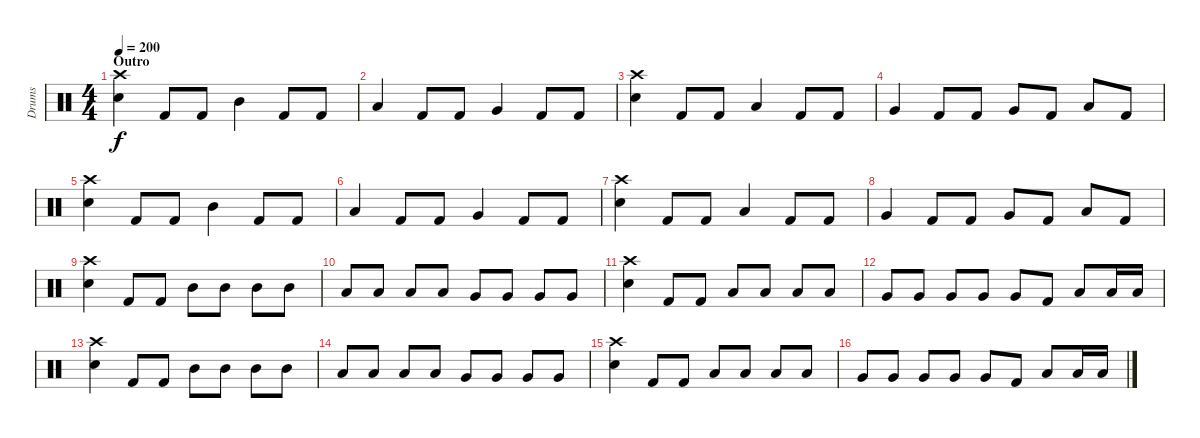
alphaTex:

\track ("Drums" "Drums") {instrument percussion}
\staff {score}
\articulation defaults
\ts (4 4)
\section ("" "Outro")
\tempo 200
\clef neutral
\ks c
("Crash high (hit)" "Snare (hit) 2").4{dy f} "Kick (hit) 2".8 "Kick (hit) 2".8 "Mid Tom (hit)".4 "Kick (hit) 2".8 "Kick (hit) 2".8 |
"Low Tom (hit)".4 "Kick (hit) 2".8 "Kick (hit) 2".8 "Very Low Tom (hit)".4 "Kick (hit) 2".8 "Kick (hit) 2".8 |
("Crash high (hit)" "Snare (hit) 2").4 "Kick (hit) 2".8 "Kick (hit) 2".8 "Low Tom (hit)".4 "Kick (hit) 2".8 "Kick (hit) 2".8 |
"Very Low Tom (hit)".4 "Kick (hit) 2".8 "Kick (hit) 2".8 "Very Low Tom (hit)".8 "Kick (hit) 2".8 "Low Floor Tom (hit)".8 "Kick (hit) 2".8 |
("Crash high (hit)" "Snare (hit) 2").4 "Kick (hit) 2".8 "Kick (hit) 2".8 "Mid Tom (hit)".4 "Kick (hit) 2".8 "Kick (hit) 2".8 |
"Low Tom (hit)".4 "Kick (hit) 2".8 "Kick (hit) 2".8 "Very Low Tom (hit)".4 "Kick (hit) 2".8 "Kick (hit) 2".8 |
("Crash high (hit)" "Snare (hit) 2").4 "Kick (hit) 2".8 "Kick (hit) 2".8 "Low Tom (hit)".4 "Kick (hit) 2".8 "Kick (hit) 2".8 |
"Very Low Tom (hit)".4 "Kick (hit) 2".8 "Kick (hit) 2".8 "Very Low Tom (hit)".8 "Kick (hit) 2".8 "Low Floor Tom (hit)".8 "Kick (hit) 2".8 |
("Crash high (hit)" "Snare (hit) 2").4 "Kick (hit) 2".8 "Kick (hit) 2".8 "Mid Tom (hit)".8 "Mid Tom (hit)".8 "Mid Tom (hit)".8 "Mid Tom (hit)".8 |
"Low Tom (hit)".8 "Low Tom (hit)".8 "Low Tom (hit)".8 "Low Tom (hit)".8 "Very Low Tom (hit)".8 "Very Low Tom (hit)".8 "Very Low Tom (hit)".8 "Very Low Tom (hit)".8 |
("Crash high (hit)" "Snare (hit) 2").4 "Kick (hit) 2".8 "Kick (hit) 2".8 "Low Tom (hit)".8 "Low Tom (hit)".8 "Low Tom (hit)".8 "Low Tom (hit)".8 |
"Very Low Tom (hit)".8 "Very Low Tom (hit)".8 "Very Low Tom (hit)".8 "Very Low Tom (hit)".8 "Very Low Tom (hit)".8 "Kick (hit) 2".8 "Low Floor Tom (hit)".8 "Low Floor Tom (hit)".16 "Low Floor Tom (hit)".16 |
("Crash high (hit)" "Snare (hit) 2").4 "Kick (hit) 2".8 "Kick (hit) 2".8 "Mid Tom (hit)".8 "Mid Tom (hit)".8 "Mid Tom (hit)".8 "Mid Tom (hit)".8 |
"Low Tom (hit)".8 "Low Tom (hit)".8 "Low Tom (hit)".8 "Low Tom (hit)".8 "Very Low Tom (hit)".8 "Very Low Tom (hit)".8 "Very Low Tom (hit)".8 "Very Low Tom (hit)".8 |
("Crash high (hit)" "Snare (hit) 2").4 "Kick (hit) 2".8 "Kick (hit) 2".8 "Low Tom (hit)".8 "Low Tom (hit)".8 "Low Tom (hit)".8 "Low Tom (hit)".8 |
"Very Low Tom (hit)".8 "Very Low Tom (hit)".8 "Very Low Tom (hit)".8 "Very Low Tom (hit)".8 "Very Low Tom (hit)".8 "Kick (hit) 2".8 "Low Floor Tom (hit)".8 "Low Floor Tom (hit)".16 "Low Floor Tom (hit)".16
